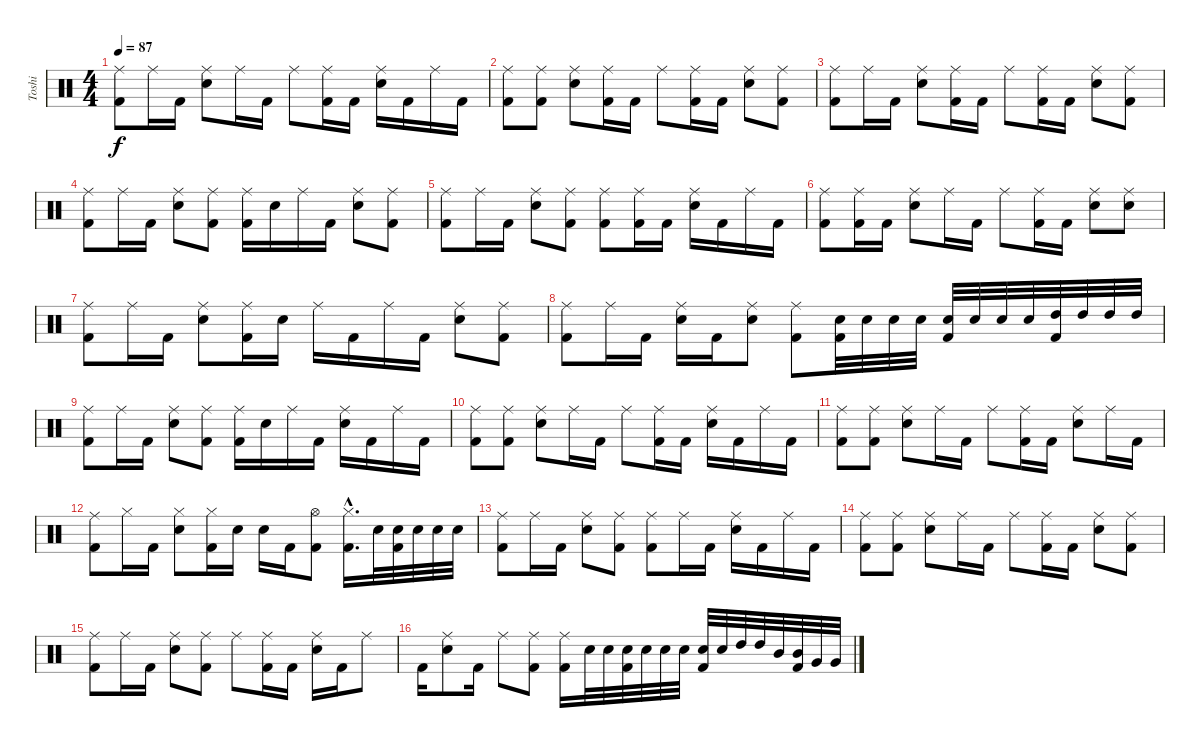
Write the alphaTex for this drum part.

\track ("Toshi" "Toshi") {instrument percussion}
\staff {score}
\articulation defaults
\ts (4 4)
\tempo 87
\clef neutral
\ks c
("Ride (middle)" "Kick (hit) 2").8{dy f} "Ride (middle)".16 "Kick (hit) 2".16 ("Ride (middle)" "Snare (hit) 2").8 "Ride (middle)".16 "Kick (hit) 2".16 "Ride (middle)".8 ("Ride (middle)" "Kick (hit) 2").16 "Kick (hit) 2".16 ("Ride (middle)" "Snare (hit) 2").16 "Kick (hit) 2".16 "Ride (middle)".16 "Kick (hit) 2".16 |
("Ride (middle)" "Kick (hit) 2").8 ("Ride (middle)" "Kick (hit) 2").8 ("Ride (middle)" "Snare (hit) 2").8 ("Ride (middle)" "Kick (hit) 2").16 "Kick (hit) 2".16 "Ride (middle)".8 ("Ride (middle)" "Kick (hit) 2").16 "Kick (hit) 2".16 ("Ride (middle)" "Snare (hit) 2").8 ("Ride (middle)" "Kick (hit) 2").8 |
("Ride (middle)" "Kick (hit) 2").8 "Ride (middle)".16 "Kick (hit) 2".16 ("Ride (middle)" "Snare (hit) 2").8 ("Ride (middle)" "Kick (hit) 2").16 "Kick (hit) 2".16 "Ride (middle)".8 ("Ride (middle)" "Kick (hit) 2").16 "Kick (hit) 2".16 ("Ride (middle)" "Snare (hit) 2").8 ("Ride (middle)" "Kick (hit) 2").8 |
("Ride (middle)" "Kick (hit) 2").8 "Ride (middle)".16 "Kick (hit) 2".16 ("Ride (middle)" "Snare (hit) 2").8 ("Ride (middle)" "Kick (hit) 2").8 ("Ride (middle)" "Kick (hit) 2").16 "Snare (hit) 2".16 "Ride (middle)".16 "Kick (hit) 2".16 ("Ride (middle)" "Snare (hit) 2").8 ("Ride (middle)" "Kick (hit) 2").8 |
("Ride (middle)" "Kick (hit) 2").8 "Ride (middle)".16 "Kick (hit) 2".16 ("Ride (middle)" "Snare (hit) 2").8 ("Ride (middle)" "Kick (hit) 2").8 ("Ride (middle)" "Kick (hit) 2").8 ("Ride (middle)" "Kick (hit) 2").16 "Kick (hit) 2".16 ("Ride (middle)" "Snare (hit) 2").16 "Kick (hit) 2".16 "Ride (middle)".16 "Kick (hit) 2".16 |
("Ride (middle)" "Kick (hit) 2").8 ("Ride (middle)" "Kick (hit) 2").16 "Kick (hit) 2".16 ("Ride (middle)" "Snare (hit) 2").8 "Ride (middle)".16 "Kick (hit) 2".16 "Ride (middle)".8 ("Ride (middle)" "Kick (hit) 2").16 "Kick (hit) 2".16 ("Ride (middle)" "Snare (hit) 2").8 ("Ride (middle)" "Snare (hit) 2").8 |
("Ride (middle)" "Kick (hit) 2").8 "Ride (middle)".16 "Kick (hit) 2".16 ("Ride (middle)" "Snare (hit) 2").8 ("Ride (middle)" "Kick (hit) 2").16 "Snare (hit) 2".16 "Ride (middle)".16 "Kick (hit) 2".16 "Ride (middle)".16 "Kick (hit) 2".16 ("Ride (middle)" "Snare (hit) 2").8 ("Ride (middle)" "Kick (hit) 2").8 |
("Ride (middle)" "Kick (hit) 2").8 "Ride (middle)".16 "Kick (hit) 2".16 ("Ride (middle)" "Snare (hit) 2").16 "Kick (hit) 2".16 ("Ride (middle)" "Snare (hit) 2").8 ("Ride (middle)" "Kick (hit) 2").8 ("Snare (hit) 2" "Kick (hit) 2").32 "Snare (hit) 2".32 "Snare (hit) 2".32 "Snare (hit) 2".32 ("Snare (hit) 2" "Kick (hit) 2").32 "Snare (hit) 2".32 "Snare (hit) 2".32 "Snare (hit) 2".32 ("High Tom (hit)" "Kick (hit) 2").32 "High Tom (hit)".32 "High Tom (hit)".32 "High Tom (hit)".32 |
("Ride (middle)" "Kick (hit) 2").8 "Ride (middle)".16 "Kick (hit) 2".16 ("Ride (middle)" "Snare (hit) 2").8 ("Ride (middle)" "Kick (hit) 2").8 ("Ride (middle)" "Kick (hit) 2").16 "Snare (hit) 2".16 "Ride (middle)".16 "Kick (hit) 2".16 ("Ride (middle)" "Snare (hit) 2").16 "Kick (hit) 2".16 "Ride (middle)".16 "Kick (hit) 2".16 |
("Ride (middle)" "Kick (hit) 2").8 ("Ride (middle)" "Kick (hit) 2").8 ("Ride (middle)" "Snare (hit) 2").8 "Ride (middle)".16 "Kick (hit) 2".16 "Ride (middle)".8 ("Ride (middle)" "Kick (hit) 2").16 "Kick (hit) 2".16 ("Ride (middle)" "Snare (hit) 2").16 "Kick (hit) 2".16 "Ride (middle)".16 "Kick (hit) 2".16 |
("Ride (middle)" "Kick (hit) 2").8 ("Ride (middle)" "Kick (hit) 2").8 ("Ride (middle)" "Snare (hit) 2").8 "Ride (middle)".16 "Kick (hit) 2".16 "Ride (middle)".8 ("Ride (middle)" "Kick (hit) 2").16 "Kick (hit) 2".16 ("Ride (middle)" "Snare (hit) 2").8 "Ride (middle)".16 "Kick (hit) 2".16 |
("Ride (middle)" "Kick (hit) 2").8 "Hi-Hat (closed)".16 "Kick (hit) 2".16 ("Hi-Hat (closed)" "Snare (hit) 2").8 ("Hi-Hat (closed)" "Kick (hit) 2").16 "Snare (hit) 2".16 "Snare (hit) 2".16 "Kick (hit) 2".16 ("Hi-Hat (open)" "Kick (hit) 2").8 ("Hi-Hat (closed)"{hac} "Kick (hit) 2"{hac}).16{d} "Snare (hit) 2".32 ("Snare (hit) 2" "Kick (hit) 2").32 "Snare (hit) 2".32 "Snare (hit) 2".32 "Snare (hit) 2".32 |
("Ride (middle)" "Kick (hit) 2").8 "Ride (middle)".16 "Kick (hit) 2".16 ("Ride (middle)" "Snare (hit) 2").8 ("Ride (middle)" "Kick (hit) 2").8 ("Ride (middle)" "Kick (hit) 2").8 "Ride (middle)".16 "Kick (hit) 2".16 ("Ride (middle)" "Snare (hit) 2").16 "Kick (hit) 2".16 "Ride (middle)".16 "Kick (hit) 2".16 |
("Ride (middle)" "Kick (hit) 2").8 ("Ride (middle)" "Kick (hit) 2").8 ("Ride (middle)" "Snare (hit) 2").8 "Ride (middle)".16 "Kick (hit) 2".16 "Ride (middle)".8 ("Ride (middle)" "Kick (hit) 2").16 "Kick (hit) 2".16 ("Ride (middle)" "Snare (hit) 2").8 ("Ride (middle)" "Kick (hit) 2").8 |
("Ride (middle)" "Kick (hit) 2").8 "Ride (middle)".16 "Kick (hit) 2".16 ("Ride (middle)" "Snare (hit) 2").8 ("Ride (middle)" "Kick (hit) 2").8 "Ride (middle)".8 ("Ride (middle)" "Kick (hit) 2").16 "Kick (hit) 2".16 ("Ride (middle)" "Snare (hit) 2").16 "Kick (hit) 2".16 "Ride (middle)".8 |
"Kick (hit) 2".16 ("Ride (middle)" "Snare (hit) 2").8 "Kick (hit) 2".16 "Ride (middle)".8 ("Ride (middle)" "Kick (hit) 2").8 ("Ride (middle)" "Kick (hit) 2").16 "Snare (hit) 2".32 "Snare (hit) 2".32 ("Snare (hit) 2" "Kick (hit) 2").32 "Snare (hit) 2".32 "Snare (hit) 2".32 "Snare (hit) 2".32 ("Snare (hit) 2" "Kick (hit) 2").32 "Snare (hit) 2".32 "High Tom (hit)".32 "High Tom (hit)".32 "Mid Tom (hit)".32 ("Mid Tom (hit)" "Kick (hit) 2").32 "Very Low Tom (hit)".32 "Very Low Tom (hit)".32
